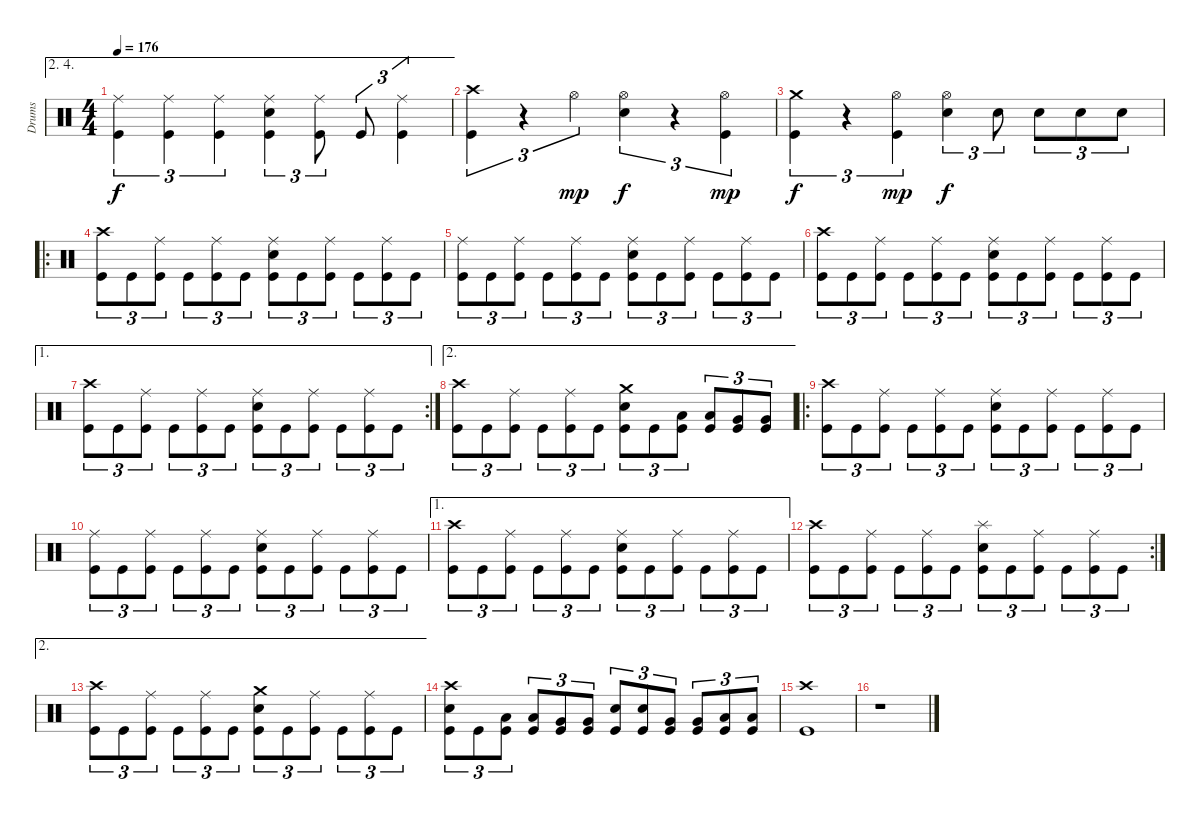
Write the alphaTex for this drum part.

\track ("Drums" "Drums") {instrument percussion}
\staff {score}
\articulation defaults
\ae (2 4)
\ts (4 4)
\tempo 176
\clef neutral
\ks c
("Ride (middle)" "Kick (hit)").4{tu (3 2) dy f} ("Ride (middle)" "Kick (hit)").4{tu (3 2)} ("Ride (middle)" "Kick (hit)").4{tu (3 2)} ("Ride (middle)" "Electric Snare (hit)" "Kick (hit)").4{tu (3 2)} ("Ride (middle)" "Kick (hit)").8{tu (3 2)} "Kick (hit)".8{tu (3 2)} ("Ride (middle)" "Kick (hit)").4{tu (3 2)} |
("Crash high (hit)" "Kick (hit)").4{tu (3 2)} r.4{tu (3 2)} "Hi-Hat (open)".4{tu (3 2) dy mp} ("Hi-Hat (open)" "Electric Snare (hit)").4{tu (3 2) dy f} r.4{tu (3 2)} ("Hi-Hat (open)" "Kick (hit)").4{tu (3 2) dy mp} |
("Crash medium (hit)" "Kick (hit)").4{tu (3 2) dy f} r.4{tu (3 2)} ("Hi-Hat (open)" "Kick (hit)").4{tu (3 2) dy mp} ("Hi-Hat (open)" "Electric Snare (hit)").4{tu (3 2) dy f} "Electric Snare (hit)".8{tu (3 2)} "Electric Snare (hit)".8{tu (3 2)} "Electric Snare (hit)".8{tu (3 2)} "Electric Snare (hit)".8{tu (3 2)} |
\ro
("Crash high (hit)" "Kick (hit)").8{tu (3 2)} "Kick (hit)".8{tu (3 2)} ("Ride (middle)" "Kick (hit)").8{tu (3 2)} "Kick (hit)".8{tu (3 2)} ("Ride (middle)" "Kick (hit)").8{tu (3 2)} "Kick (hit)".8{tu (3 2)} ("Ride (middle)" "Electric Snare (hit)" "Kick (hit)").8{tu (3 2)} "Kick (hit)".8{tu (3 2)} ("Ride (middle)" "Kick (hit)").8{tu (3 2)} "Kick (hit)".8{tu (3 2)} ("Ride (middle)" "Kick (hit)").8{tu (3 2)} "Kick (hit)".8{tu (3 2)} |
("Ride (middle)" "Kick (hit)").8{tu (3 2)} "Kick (hit)".8{tu (3 2)} ("Ride (middle)" "Kick (hit)").8{tu (3 2)} "Kick (hit)".8{tu (3 2)} ("Ride (middle)" "Kick (hit)").8{tu (3 2)} "Kick (hit)".8{tu (3 2)} ("Ride (middle)" "Electric Snare (hit)" "Kick (hit)").8{tu (3 2)} "Kick (hit)".8{tu (3 2)} ("Ride (middle)" "Kick (hit)").8{tu (3 2)} "Kick (hit)".8{tu (3 2)} ("Ride (middle)" "Kick (hit)").8{tu (3 2)} "Kick (hit)".8{tu (3 2)} |
("Crash high (hit)" "Kick (hit)").8{tu (3 2)} "Kick (hit)".8{tu (3 2)} ("Ride (middle)" "Kick (hit)").8{tu (3 2)} "Kick (hit)".8{tu (3 2)} ("Ride (middle)" "Kick (hit)").8{tu (3 2)} "Kick (hit)".8{tu (3 2)} ("Ride (middle)" "Electric Snare (hit)" "Kick (hit)").8{tu (3 2)} "Kick (hit)".8{tu (3 2)} ("Ride (middle)" "Kick (hit)").8{tu (3 2)} "Kick (hit)".8{tu (3 2)} ("Ride (middle)" "Kick (hit)").8{tu (3 2)} "Kick (hit)".8{tu (3 2)} |
\ae 1
\rc 2
("Crash high (hit)" "Kick (hit)").8{tu (3 2)} "Kick (hit)".8{tu (3 2)} ("Ride (middle)" "Kick (hit)").8{tu (3 2)} "Kick (hit)".8{tu (3 2)} ("Ride (middle)" "Kick (hit)").8{tu (3 2)} "Kick (hit)".8{tu (3 2)} ("Ride (middle)" "Electric Snare (hit)" "Kick (hit)").8{tu (3 2)} "Kick (hit)".8{tu (3 2)} ("Ride (middle)" "Kick (hit)").8{tu (3 2)} "Kick (hit)".8{tu (3 2)} ("Ride (middle)" "Kick (hit)").8{tu (3 2)} "Kick (hit)".8{tu (3 2)} |
\ae 2
("Crash high (hit)" "Kick (hit)").8{tu (3 2)} "Kick (hit)".8{tu (3 2)} ("Ride (middle)" "Kick (hit)").8{tu (3 2)} "Kick (hit)".8{tu (3 2)} ("Ride (middle)" "Kick (hit)").8{tu (3 2)} "Kick (hit)".8{tu (3 2)} ("Crash medium (hit)" "Electric Snare (hit)" "Kick (hit)").8{tu (3 2)} "Kick (hit)".8{tu (3 2)} ("Low Tom (hit)" "Kick (hit)").8{tu (3 2)} ("Low Tom (hit)" "Kick (hit)").8{tu (3 2)} ("Very Low Tom (hit)" "Kick (hit)").8{tu (3 2)} ("Very Low Tom (hit)" "Kick (hit)").8{tu (3 2)} |
\ro
("Crash high (hit)" "Kick (hit)").8{tu (3 2)} "Kick (hit)".8{tu (3 2)} ("Ride (middle)" "Kick (hit)").8{tu (3 2)} "Kick (hit)".8{tu (3 2)} ("Ride (middle)" "Kick (hit)").8{tu (3 2)} "Kick (hit)".8{tu (3 2)} ("Ride (middle)" "Electric Snare (hit)" "Kick (hit)").8{tu (3 2)} "Kick (hit)".8{tu (3 2)} ("Ride (middle)" "Kick (hit)").8{tu (3 2)} "Kick (hit)".8{tu (3 2)} ("Ride (middle)" "Kick (hit)").8{tu (3 2)} "Kick (hit)".8{tu (3 2)} |
("Ride (middle)" "Kick (hit)").8{tu (3 2)} "Kick (hit)".8{tu (3 2)} ("Ride (middle)" "Kick (hit)").8{tu (3 2)} "Kick (hit)".8{tu (3 2)} ("Ride (middle)" "Kick (hit)").8{tu (3 2)} "Kick (hit)".8{tu (3 2)} ("Ride (middle)" "Electric Snare (hit)" "Kick (hit)").8{tu (3 2)} "Kick (hit)".8{tu (3 2)} ("Ride (middle)" "Kick (hit)").8{tu (3 2)} "Kick (hit)".8{tu (3 2)} ("Ride (middle)" "Kick (hit)").8{tu (3 2)} "Kick (hit)".8{tu (3 2)} |
\ae 1
("Crash high (hit)" "Kick (hit)").8{tu (3 2)} "Kick (hit)".8{tu (3 2)} ("Ride (middle)" "Kick (hit)").8{tu (3 2)} "Kick (hit)".8{tu (3 2)} ("Ride (middle)" "Kick (hit)").8{tu (3 2)} "Kick (hit)".8{tu (3 2)} ("Ride (middle)" "Electric Snare (hit)" "Kick (hit)").8{tu (3 2)} "Kick (hit)".8{tu (3 2)} ("Ride (middle)" "Kick (hit)").8{tu (3 2)} "Kick (hit)".8{tu (3 2)} ("Ride (middle)" "Kick (hit)").8{tu (3 2)} "Kick (hit)".8{tu (3 2)} |
\rc 2
("Crash high (hit)" "Kick (hit)").8{tu (3 2)} "Kick (hit)".8{tu (3 2)} ("Ride (middle)" "Kick (hit)").8{tu (3 2)} "Kick (hit)".8{tu (3 2)} ("Ride (middle)" "Kick (hit)").8{tu (3 2)} "Kick (hit)".8{tu (3 2)} ("Splash (hit)" "Electric Snare (hit)" "Kick (hit)").8{tu (3 2)} "Kick (hit)".8{tu (3 2)} ("Ride (middle)" "Kick (hit)").8{tu (3 2)} "Kick (hit)".8{tu (3 2)} ("Ride (middle)" "Kick (hit)").8{tu (3 2)} "Kick (hit)".8{tu (3 2)} |
\ae 2
("Crash high (hit)" "Kick (hit)").8{tu (3 2)} "Kick (hit)".8{tu (3 2)} ("Ride (middle)" "Kick (hit)").8{tu (3 2)} "Kick (hit)".8{tu (3 2)} ("Ride (middle)" "Kick (hit)").8{tu (3 2)} "Kick (hit)".8{tu (3 2)} ("Crash medium (hit)" "Electric Snare (hit)" "Kick (hit)").8{tu (3 2)} "Kick (hit)".8{tu (3 2)} ("Ride (middle)" "Kick (hit)").8{tu (3 2)} "Kick (hit)".8{tu (3 2)} ("Ride (middle)" "Kick (hit)").8{tu (3 2)} "Kick (hit)".8{tu (3 2)} |
("Crash high (hit)" "Electric Snare (hit)" "Kick (hit)").8{tu (3 2)} "Kick (hit)".8{tu (3 2)} ("Low Tom (hit)" "Kick (hit)").8{tu (3 2)} ("Low Tom (hit)" "Kick (hit)").8{tu (3 2)} ("Very Low Tom (hit)" "Kick (hit)").8{tu (3 2)} ("Very Low Tom (hit)" "Kick (hit)").8{tu (3 2)} ("Electric Snare (hit)" "Kick (hit)").8{tu (3 2)} ("Electric Snare (hit)" "Kick (hit)").8{tu (3 2)} ("Very Low Tom (hit)" "Kick (hit)").8{tu (3 2)} ("Very Low Tom (hit)" "Kick (hit)").8{tu (3 2)} ("Low Floor Tom (hit)" "Kick (hit)").8{tu (3 2)} ("Low Floor Tom (hit)" "Kick (hit)").8{tu (3 2)} |
("Crash high (hit)" "Kick (hit)").1 |
r.1
